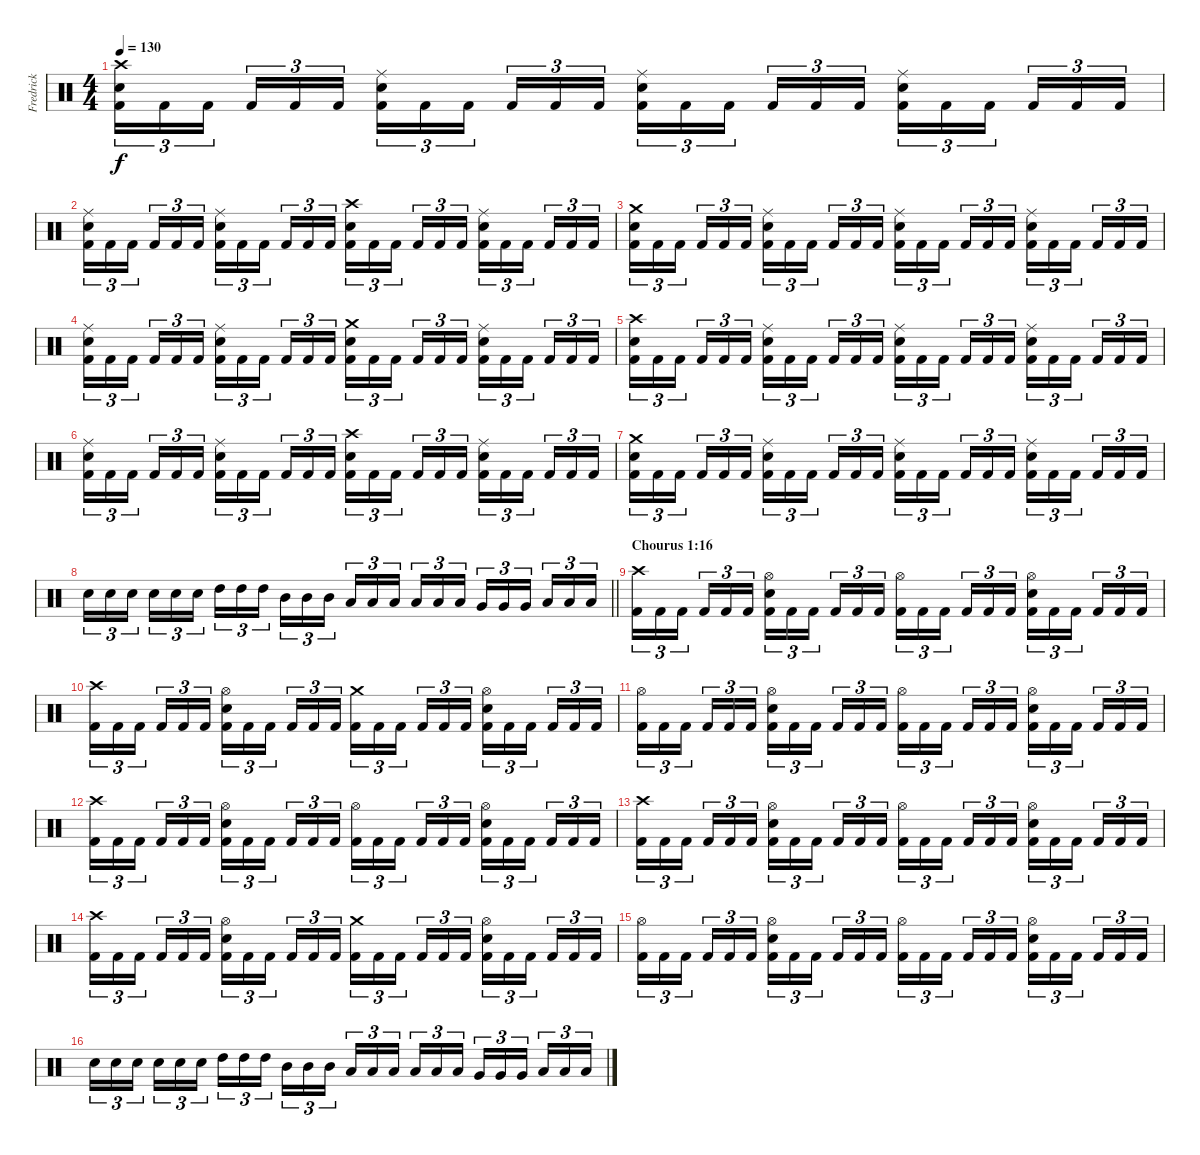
\track ("Fredrick" "Fredrick") {instrument percussion}
\staff {score}
\articulation defaults
\ts (4 4)
\tempo 130
\clef neutral
\ks c
("Crash high (hit)" "Electric Snare (hit)" "Kick (hit) 2").16{tu (3 2) dy f} "Kick (hit) 2".16{tu (3 2)} "Kick (hit) 2".16{tu (3 2) beam splitsecondary} "Kick (hit) 2".16{tu (3 2)} "Kick (hit) 2".16{tu (3 2)} "Kick (hit) 2".16{tu (3 2)} ("Ride (middle)" "Electric Snare (hit)" "Kick (hit) 2").16{tu (3 2)} "Kick (hit) 2".16{tu (3 2)} "Kick (hit) 2".16{tu (3 2) beam splitsecondary} "Kick (hit) 2".16{tu (3 2)} "Kick (hit) 2".16{tu (3 2)} "Kick (hit) 2".16{tu (3 2)} ("Ride (middle)" "Electric Snare (hit)" "Kick (hit) 2").16{tu (3 2)} "Kick (hit) 2".16{tu (3 2)} "Kick (hit) 2".16{tu (3 2) beam splitsecondary} "Kick (hit) 2".16{tu (3 2)} "Kick (hit) 2".16{tu (3 2)} "Kick (hit) 2".16{tu (3 2)} ("Ride (middle)" "Electric Snare (hit)" "Kick (hit) 2").16{tu (3 2)} "Kick (hit) 2".16{tu (3 2)} "Kick (hit) 2".16{tu (3 2) beam splitsecondary} "Kick (hit) 2".16{tu (3 2)} "Kick (hit) 2".16{tu (3 2)} "Kick (hit) 2".16{tu (3 2)} |
("Ride (middle)" "Electric Snare (hit)" "Kick (hit) 2").16{tu (3 2)} "Kick (hit) 2".16{tu (3 2)} "Kick (hit) 2".16{tu (3 2) beam splitsecondary} "Kick (hit) 2".16{tu (3 2)} "Kick (hit) 2".16{tu (3 2)} "Kick (hit) 2".16{tu (3 2)} ("Ride (middle)" "Electric Snare (hit)" "Kick (hit) 2").16{tu (3 2)} "Kick (hit) 2".16{tu (3 2)} "Kick (hit) 2".16{tu (3 2) beam splitsecondary} "Kick (hit) 2".16{tu (3 2)} "Kick (hit) 2".16{tu (3 2)} "Kick (hit) 2".16{tu (3 2)} ("Crash high (hit)" "Electric Snare (hit)" "Kick (hit) 2").16{tu (3 2)} "Kick (hit) 2".16{tu (3 2)} "Kick (hit) 2".16{tu (3 2) beam splitsecondary} "Kick (hit) 2".16{tu (3 2)} "Kick (hit) 2".16{tu (3 2)} "Kick (hit) 2".16{tu (3 2)} ("Ride (middle)" "Electric Snare (hit)" "Kick (hit) 2").16{tu (3 2)} "Kick (hit) 2".16{tu (3 2)} "Kick (hit) 2".16{tu (3 2) beam splitsecondary} "Kick (hit) 2".16{tu (3 2)} "Kick (hit) 2".16{tu (3 2)} "Kick (hit) 2".16{tu (3 2)} |
("Crash medium (hit)" "Electric Snare (hit)" "Kick (hit) 2").16{tu (3 2)} "Kick (hit) 2".16{tu (3 2)} "Kick (hit) 2".16{tu (3 2) beam splitsecondary} "Kick (hit) 2".16{tu (3 2)} "Kick (hit) 2".16{tu (3 2)} "Kick (hit) 2".16{tu (3 2)} ("Ride (middle)" "Electric Snare (hit)" "Kick (hit) 2").16{tu (3 2)} "Kick (hit) 2".16{tu (3 2)} "Kick (hit) 2".16{tu (3 2) beam splitsecondary} "Kick (hit) 2".16{tu (3 2)} "Kick (hit) 2".16{tu (3 2)} "Kick (hit) 2".16{tu (3 2)} ("Ride (middle)" "Electric Snare (hit)" "Kick (hit) 2").16{tu (3 2)} "Kick (hit) 2".16{tu (3 2)} "Kick (hit) 2".16{tu (3 2) beam splitsecondary} "Kick (hit) 2".16{tu (3 2)} "Kick (hit) 2".16{tu (3 2)} "Kick (hit) 2".16{tu (3 2)} ("Ride (middle)" "Electric Snare (hit)" "Kick (hit) 2").16{tu (3 2)} "Kick (hit) 2".16{tu (3 2)} "Kick (hit) 2".16{tu (3 2) beam splitsecondary} "Kick (hit) 2".16{tu (3 2)} "Kick (hit) 2".16{tu (3 2)} "Kick (hit) 2".16{tu (3 2)} |
("Ride (middle)" "Electric Snare (hit)" "Kick (hit) 2").16{tu (3 2)} "Kick (hit) 2".16{tu (3 2)} "Kick (hit) 2".16{tu (3 2) beam splitsecondary} "Kick (hit) 2".16{tu (3 2)} "Kick (hit) 2".16{tu (3 2)} "Kick (hit) 2".16{tu (3 2)} ("Ride (middle)" "Electric Snare (hit)" "Kick (hit) 2").16{tu (3 2)} "Kick (hit) 2".16{tu (3 2)} "Kick (hit) 2".16{tu (3 2) beam splitsecondary} "Kick (hit) 2".16{tu (3 2)} "Kick (hit) 2".16{tu (3 2)} "Kick (hit) 2".16{tu (3 2)} ("Crash medium (hit)" "Electric Snare (hit)" "Kick (hit) 2").16{tu (3 2)} "Kick (hit) 2".16{tu (3 2)} "Kick (hit) 2".16{tu (3 2) beam splitsecondary} "Kick (hit) 2".16{tu (3 2)} "Kick (hit) 2".16{tu (3 2)} "Kick (hit) 2".16{tu (3 2)} ("Ride (middle)" "Electric Snare (hit)" "Kick (hit) 2").16{tu (3 2)} "Kick (hit) 2".16{tu (3 2)} "Kick (hit) 2".16{tu (3 2) beam splitsecondary} "Kick (hit) 2".16{tu (3 2)} "Kick (hit) 2".16{tu (3 2)} "Kick (hit) 2".16{tu (3 2)} |
("Crash high (hit)" "Electric Snare (hit)" "Kick (hit) 2").16{tu (3 2)} "Kick (hit) 2".16{tu (3 2)} "Kick (hit) 2".16{tu (3 2) beam splitsecondary} "Kick (hit) 2".16{tu (3 2)} "Kick (hit) 2".16{tu (3 2)} "Kick (hit) 2".16{tu (3 2)} ("Ride (middle)" "Electric Snare (hit)" "Kick (hit) 2").16{tu (3 2)} "Kick (hit) 2".16{tu (3 2)} "Kick (hit) 2".16{tu (3 2) beam splitsecondary} "Kick (hit) 2".16{tu (3 2)} "Kick (hit) 2".16{tu (3 2)} "Kick (hit) 2".16{tu (3 2)} ("Ride (middle)" "Electric Snare (hit)" "Kick (hit) 2").16{tu (3 2)} "Kick (hit) 2".16{tu (3 2)} "Kick (hit) 2".16{tu (3 2) beam splitsecondary} "Kick (hit) 2".16{tu (3 2)} "Kick (hit) 2".16{tu (3 2)} "Kick (hit) 2".16{tu (3 2)} ("Ride (middle)" "Electric Snare (hit)" "Kick (hit) 2").16{tu (3 2)} "Kick (hit) 2".16{tu (3 2)} "Kick (hit) 2".16{tu (3 2) beam splitsecondary} "Kick (hit) 2".16{tu (3 2)} "Kick (hit) 2".16{tu (3 2)} "Kick (hit) 2".16{tu (3 2)} |
("Ride (middle)" "Electric Snare (hit)" "Kick (hit) 2").16{tu (3 2)} "Kick (hit) 2".16{tu (3 2)} "Kick (hit) 2".16{tu (3 2) beam splitsecondary} "Kick (hit) 2".16{tu (3 2)} "Kick (hit) 2".16{tu (3 2)} "Kick (hit) 2".16{tu (3 2)} ("Ride (middle)" "Electric Snare (hit)" "Kick (hit) 2").16{tu (3 2)} "Kick (hit) 2".16{tu (3 2)} "Kick (hit) 2".16{tu (3 2) beam splitsecondary} "Kick (hit) 2".16{tu (3 2)} "Kick (hit) 2".16{tu (3 2)} "Kick (hit) 2".16{tu (3 2)} ("Crash high (hit)" "Electric Snare (hit)" "Kick (hit) 2").16{tu (3 2)} "Kick (hit) 2".16{tu (3 2)} "Kick (hit) 2".16{tu (3 2) beam splitsecondary} "Kick (hit) 2".16{tu (3 2)} "Kick (hit) 2".16{tu (3 2)} "Kick (hit) 2".16{tu (3 2)} ("Ride (middle)" "Electric Snare (hit)" "Kick (hit) 2").16{tu (3 2)} "Kick (hit) 2".16{tu (3 2)} "Kick (hit) 2".16{tu (3 2) beam splitsecondary} "Kick (hit) 2".16{tu (3 2)} "Kick (hit) 2".16{tu (3 2)} "Kick (hit) 2".16{tu (3 2)} |
("Crash medium (hit)" "Electric Snare (hit)" "Kick (hit) 2").16{tu (3 2)} "Kick (hit) 2".16{tu (3 2)} "Kick (hit) 2".16{tu (3 2) beam splitsecondary} "Kick (hit) 2".16{tu (3 2)} "Kick (hit) 2".16{tu (3 2)} "Kick (hit) 2".16{tu (3 2)} ("Ride (middle)" "Electric Snare (hit)" "Kick (hit) 2").16{tu (3 2)} "Kick (hit) 2".16{tu (3 2)} "Kick (hit) 2".16{tu (3 2) beam splitsecondary} "Kick (hit) 2".16{tu (3 2)} "Kick (hit) 2".16{tu (3 2)} "Kick (hit) 2".16{tu (3 2)} ("Ride (middle)" "Electric Snare (hit)" "Kick (hit) 2").16{tu (3 2)} "Kick (hit) 2".16{tu (3 2)} "Kick (hit) 2".16{tu (3 2) beam splitsecondary} "Kick (hit) 2".16{tu (3 2)} "Kick (hit) 2".16{tu (3 2)} "Kick (hit) 2".16{tu (3 2)} ("Ride (middle)" "Electric Snare (hit)" "Kick (hit) 2").16{tu (3 2)} "Kick (hit) 2".16{tu (3 2)} "Kick (hit) 2".16{tu (3 2) beam splitsecondary} "Kick (hit) 2".16{tu (3 2)} "Kick (hit) 2".16{tu (3 2)} "Kick (hit) 2".16{tu (3 2)} |
\barLineRight lightlight "Electric Snare (hit)".16{tu (3 2)} "Electric Snare (hit)".16{tu (3 2)} "Electric Snare (hit)".16{tu (3 2) beam splitsecondary} "Electric Snare (hit)".16{tu (3 2)} "Electric Snare (hit)".16{tu (3 2)} "Electric Snare (hit)".16{tu (3 2)} "High Tom (hit)".16{tu (3 2)} "High Tom (hit)".16{tu (3 2)} "High Tom (hit)".16{tu (3 2) beam splitsecondary} "Mid Tom (hit)".16{tu (3 2)} "Mid Tom (hit)".16{tu (3 2)} "Mid Tom (hit)".16{tu (3 2)} "Low Tom (hit)".16{tu (3 2)} "Low Tom (hit)".16{tu (3 2)} "Low Tom (hit)".16{tu (3 2) beam splitsecondary} "Low Tom (hit)".16{tu (3 2)} "Low Tom (hit)".16{tu (3 2)} "Low Tom (hit)".16{tu (3 2)} "Very Low Tom (hit)".16{tu (3 2)} "Very Low Tom (hit)".16{tu (3 2)} "Very Low Tom (hit)".16{tu (3 2) beam splitsecondary} "Low Floor Tom (hit)".16{tu (3 2)} "Low Floor Tom (hit)".16{tu (3 2)} "Low Floor Tom (hit)".16{tu (3 2)}
|
\section ("" "Chourus 1:16")
("Crash high (hit)" "Kick (hit) 2").16{tu (3 2)} "Kick (hit) 2".16{tu (3 2)} "Kick (hit) 2".16{tu (3 2) beam splitsecondary} "Kick (hit) 2".16{tu (3 2)} "Kick (hit) 2".16{tu (3 2)} "Kick (hit) 2".16{tu (3 2)} ("Hi-Hat (open)" "Electric Snare (hit)" "Kick (hit) 2").16{tu (3 2)} "Kick (hit) 2".16{tu (3 2)} "Kick (hit) 2".16{tu (3 2) beam splitsecondary} "Kick (hit) 2".16{tu (3 2)} "Kick (hit) 2".16{tu (3 2)} "Kick (hit) 2".16{tu (3 2)} ("Hi-Hat (open)" "Kick (hit) 2").16{tu (3 2)} "Kick (hit) 2".16{tu (3 2)} "Kick (hit) 2".16{tu (3 2) beam splitsecondary} "Kick (hit) 2".16{tu (3 2)} "Kick (hit) 2".16{tu (3 2)} "Kick (hit) 2".16{tu (3 2)} ("Hi-Hat (open)" "Electric Snare (hit)" "Kick (hit) 2").16{tu (3 2)} "Kick (hit) 2".16{tu (3 2)} "Kick (hit) 2".16{tu (3 2) beam splitsecondary} "Kick (hit) 2".16{tu (3 2)} "Kick (hit) 2".16{tu (3 2)} "Kick (hit) 2".16{tu (3 2)} |
("Crash high (hit)" "Kick (hit) 2").16{tu (3 2)} "Kick (hit) 2".16{tu (3 2)} "Kick (hit) 2".16{tu (3 2) beam splitsecondary} "Kick (hit) 2".16{tu (3 2)} "Kick (hit) 2".16{tu (3 2)} "Kick (hit) 2".16{tu (3 2)} ("Hi-Hat (open)" "Electric Snare (hit)" "Kick (hit) 2").16{tu (3 2)} "Kick (hit) 2".16{tu (3 2)} "Kick (hit) 2".16{tu (3 2) beam splitsecondary} "Kick (hit) 2".16{tu (3 2)} "Kick (hit) 2".16{tu (3 2)} "Kick (hit) 2".16{tu (3 2)} ("Crash medium (hit)" "Kick (hit) 2").16{tu (3 2)} "Kick (hit) 2".16{tu (3 2)} "Kick (hit) 2".16{tu (3 2) beam splitsecondary} "Kick (hit) 2".16{tu (3 2)} "Kick (hit) 2".16{tu (3 2)} "Kick (hit) 2".16{tu (3 2)} ("Hi-Hat (open)" "Electric Snare (hit)" "Kick (hit) 2").16{tu (3 2)} "Kick (hit) 2".16{tu (3 2)} "Kick (hit) 2".16{tu (3 2) beam splitsecondary} "Kick (hit) 2".16{tu (3 2)} "Kick (hit) 2".16{tu (3 2)} "Kick (hit) 2".16{tu (3 2)} |
("Hi-Hat (open)" "Kick (hit) 2").16{tu (3 2)} "Kick (hit) 2".16{tu (3 2)} "Kick (hit) 2".16{tu (3 2) beam splitsecondary} "Kick (hit) 2".16{tu (3 2)} "Kick (hit) 2".16{tu (3 2)} "Kick (hit) 2".16{tu (3 2)} ("Hi-Hat (open)" "Electric Snare (hit)" "Kick (hit) 2").16{tu (3 2)} "Kick (hit) 2".16{tu (3 2)} "Kick (hit) 2".16{tu (3 2) beam splitsecondary} "Kick (hit) 2".16{tu (3 2)} "Kick (hit) 2".16{tu (3 2)} "Kick (hit) 2".16{tu (3 2)} ("Hi-Hat (open)" "Kick (hit) 2").16{tu (3 2)} "Kick (hit) 2".16{tu (3 2)} "Kick (hit) 2".16{tu (3 2) beam splitsecondary} "Kick (hit) 2".16{tu (3 2)} "Kick (hit) 2".16{tu (3 2)} "Kick (hit) 2".16{tu (3 2)} ("Hi-Hat (open)" "Electric Snare (hit)" "Kick (hit) 2").16{tu (3 2)} "Kick (hit) 2".16{tu (3 2)} "Kick (hit) 2".16{tu (3 2) beam splitsecondary} "Kick (hit) 2".16{tu (3 2)} "Kick (hit) 2".16{tu (3 2)} "Kick (hit) 2".16{tu (3 2)} |
("Crash high (hit)" "Kick (hit) 2").16{tu (3 2)} "Kick (hit) 2".16{tu (3 2)} "Kick (hit) 2".16{tu (3 2) beam splitsecondary} "Kick (hit) 2".16{tu (3 2)} "Kick (hit) 2".16{tu (3 2)} "Kick (hit) 2".16{tu (3 2)} ("Hi-Hat (open)" "Electric Snare (hit)" "Kick (hit) 2").16{tu (3 2)} "Kick (hit) 2".16{tu (3 2)} "Kick (hit) 2".16{tu (3 2) beam splitsecondary} "Kick (hit) 2".16{tu (3 2)} "Kick (hit) 2".16{tu (3 2)} "Kick (hit) 2".16{tu (3 2)} ("Hi-Hat (open)" "Kick (hit) 2").16{tu (3 2)} "Kick (hit) 2".16{tu (3 2)} "Kick (hit) 2".16{tu (3 2) beam splitsecondary} "Kick (hit) 2".16{tu (3 2)} "Kick (hit) 2".16{tu (3 2)} "Kick (hit) 2".16{tu (3 2)} ("Hi-Hat (open)" "Electric Snare (hit)" "Kick (hit) 2").16{tu (3 2)} "Kick (hit) 2".16{tu (3 2)} "Kick (hit) 2".16{tu (3 2) beam splitsecondary} "Kick (hit) 2".16{tu (3 2)} "Kick (hit) 2".16{tu (3 2)} "Kick (hit) 2".16{tu (3 2)} |
("Crash high (hit)" "Kick (hit) 2").16{tu (3 2)} "Kick (hit) 2".16{tu (3 2)} "Kick (hit) 2".16{tu (3 2) beam splitsecondary} "Kick (hit) 2".16{tu (3 2)} "Kick (hit) 2".16{tu (3 2)} "Kick (hit) 2".16{tu (3 2)} ("Hi-Hat (open)" "Electric Snare (hit)" "Kick (hit) 2").16{tu (3 2)} "Kick (hit) 2".16{tu (3 2)} "Kick (hit) 2".16{tu (3 2) beam splitsecondary} "Kick (hit) 2".16{tu (3 2)} "Kick (hit) 2".16{tu (3 2)} "Kick (hit) 2".16{tu (3 2)} ("Hi-Hat (open)" "Kick (hit) 2").16{tu (3 2)} "Kick (hit) 2".16{tu (3 2)} "Kick (hit) 2".16{tu (3 2) beam splitsecondary} "Kick (hit) 2".16{tu (3 2)} "Kick (hit) 2".16{tu (3 2)} "Kick (hit) 2".16{tu (3 2)} ("Hi-Hat (open)" "Electric Snare (hit)" "Kick (hit) 2").16{tu (3 2)} "Kick (hit) 2".16{tu (3 2)} "Kick (hit) 2".16{tu (3 2) beam splitsecondary} "Kick (hit) 2".16{tu (3 2)} "Kick (hit) 2".16{tu (3 2)} "Kick (hit) 2".16{tu (3 2)} |
("Crash high (hit)" "Kick (hit) 2").16{tu (3 2)} "Kick (hit) 2".16{tu (3 2)} "Kick (hit) 2".16{tu (3 2) beam splitsecondary} "Kick (hit) 2".16{tu (3 2)} "Kick (hit) 2".16{tu (3 2)} "Kick (hit) 2".16{tu (3 2)} ("Hi-Hat (open)" "Electric Snare (hit)" "Kick (hit) 2").16{tu (3 2)} "Kick (hit) 2".16{tu (3 2)} "Kick (hit) 2".16{tu (3 2) beam splitsecondary} "Kick (hit) 2".16{tu (3 2)} "Kick (hit) 2".16{tu (3 2)} "Kick (hit) 2".16{tu (3 2)} ("Crash medium (hit)" "Kick (hit) 2").16{tu (3 2)} "Kick (hit) 2".16{tu (3 2)} "Kick (hit) 2".16{tu (3 2) beam splitsecondary} "Kick (hit) 2".16{tu (3 2)} "Kick (hit) 2".16{tu (3 2)} "Kick (hit) 2".16{tu (3 2)} ("Hi-Hat (open)" "Electric Snare (hit)" "Kick (hit) 2").16{tu (3 2)} "Kick (hit) 2".16{tu (3 2)} "Kick (hit) 2".16{tu (3 2) beam splitsecondary} "Kick (hit) 2".16{tu (3 2)} "Kick (hit) 2".16{tu (3 2)} "Kick (hit) 2".16{tu (3 2)} |
("Hi-Hat (open)" "Kick (hit) 2").16{tu (3 2)} "Kick (hit) 2".16{tu (3 2)} "Kick (hit) 2".16{tu (3 2) beam splitsecondary} "Kick (hit) 2".16{tu (3 2)} "Kick (hit) 2".16{tu (3 2)} "Kick (hit) 2".16{tu (3 2)} ("Hi-Hat (open)" "Electric Snare (hit)" "Kick (hit) 2").16{tu (3 2)} "Kick (hit) 2".16{tu (3 2)} "Kick (hit) 2".16{tu (3 2) beam splitsecondary} "Kick (hit) 2".16{tu (3 2)} "Kick (hit) 2".16{tu (3 2)} "Kick (hit) 2".16{tu (3 2)} ("Hi-Hat (open)" "Kick (hit) 2").16{tu (3 2)} "Kick (hit) 2".16{tu (3 2)} "Kick (hit) 2".16{tu (3 2) beam splitsecondary} "Kick (hit) 2".16{tu (3 2)} "Kick (hit) 2".16{tu (3 2)} "Kick (hit) 2".16{tu (3 2)} ("Hi-Hat (open)" "Electric Snare (hit)" "Kick (hit) 2").16{tu (3 2)} "Kick (hit) 2".16{tu (3 2)} "Kick (hit) 2".16{tu (3 2) beam splitsecondary} "Kick (hit) 2".16{tu (3 2)} "Kick (hit) 2".16{tu (3 2)} "Kick (hit) 2".16{tu (3 2)} |
"Electric Snare (hit)".16{tu (3 2)} "Electric Snare (hit)".16{tu (3 2)} "Electric Snare (hit)".16{tu (3 2) beam splitsecondary} "Electric Snare (hit)".16{tu (3 2)} "Electric Snare (hit)".16{tu (3 2)} "Electric Snare (hit)".16{tu (3 2)} "High Tom (hit)".16{tu (3 2)} "High Tom (hit)".16{tu (3 2)} "High Tom (hit)".16{tu (3 2) beam splitsecondary} "Mid Tom (hit)".16{tu (3 2)} "Mid Tom (hit)".16{tu (3 2)} "Mid Tom (hit)".16{tu (3 2)} "Low Tom (hit)".16{tu (3 2)} "Low Tom (hit)".16{tu (3 2)} "Low Tom (hit)".16{tu (3 2) beam splitsecondary} "Low Tom (hit)".16{tu (3 2)} "Low Tom (hit)".16{tu (3 2)} "Low Tom (hit)".16{tu (3 2)} "Very Low Tom (hit)".16{tu (3 2)} "Very Low Tom (hit)".16{tu (3 2)} "Very Low Tom (hit)".16{tu (3 2) beam splitsecondary} "Low Floor Tom (hit)".16{tu (3 2)} "Low Floor Tom (hit)".16{tu (3 2)} "Low Floor Tom (hit)".16{tu (3 2)}
